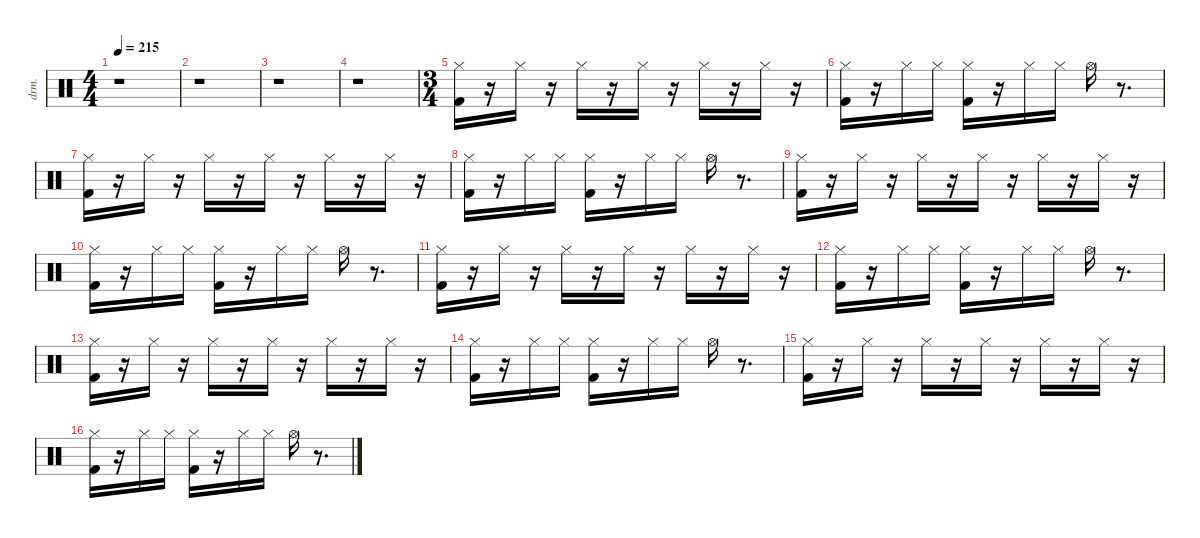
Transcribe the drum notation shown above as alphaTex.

\defaultSystemsLayout 4
\hideDynamics
\bracketExtendMode nobrackets
\otherSystemsTrackNameOrientation horizontal
\track ("drums(暫定)" "drm.") {instrument percussion}
\staff {score}
\articulation defaults
\ts (4 4)
\tempo 215
\clef neutral
\ks aminor
r.1{dy fff beam Down} |
r.1{beam Down} |
r.1{beam Down} |
r.1{beam Down} |
\ts (3 4)
("Kick (hit) 2" "Hi-Hat (closed)"{acc #}).16{beam Down} r.16{beam Down} "Hi-Hat (closed)"{acc #}.16{dy pp beam Down} r.16{beam Down} "Hi-Hat (closed)"{acc #}.16{beam Down} r.16{beam Down} "Hi-Hat (closed)"{acc #}.16{dy fff beam Down} r.16{beam Down} "Hi-Hat (closed)"{acc #}.16{dy ppp beam Down} r.16{beam Down} "Hi-Hat (closed)"{acc #}.16{dy pp beam Down} r.16{beam Down} |
("Kick (hit) 2" "Hi-Hat (closed)"{acc #}).16{dy ff beam Down} r.16{beam Down} "Hi-Hat (closed)"{acc #}.16{dy mp beam Down} "Hi-Hat (closed)"{acc #}.16{dy pp beam Down} ("Kick (hit) 2" "Hi-Hat (closed)"{acc #}).16{dy ff beam Down} r.16{beam Down} "Hi-Hat (closed)"{acc #}.16{dy pp beam Down} "Hi-Hat (closed)"{acc #}.16{dy ppp beam Down} "Hi-Hat (open)"{acc #}.16{dy fff beam Down} r.8{d beam Down} |
("Kick (hit) 2" "Hi-Hat (closed)"{acc #}).16{dy ff beam Down} r.16{beam Down} "Hi-Hat (closed)"{acc #}.16{dy pp beam Down} r.16{beam Down} "Hi-Hat (closed)"{acc #}.16{beam Down} r.16{beam Down} "Hi-Hat (closed)"{acc #}.16{dy fff beam Down} r.16{beam Down} "Hi-Hat (closed)"{acc #}.16{dy ppp beam Down} r.16{beam Down} "Hi-Hat (closed)"{acc #}.16{dy pp beam Down} r.16{beam Down} |
("Kick (hit) 2" "Hi-Hat (closed)"{acc #}).16{dy ff beam Down} r.16{beam Down} "Hi-Hat (closed)"{acc #}.16{dy mp beam Down} "Hi-Hat (closed)"{acc #}.16{dy pp beam Down} ("Kick (hit) 2" "Hi-Hat (closed)"{acc #}).16{dy ff beam Down} r.16{beam Down} "Hi-Hat (closed)"{acc #}.16{dy pp beam Down} "Hi-Hat (closed)"{acc #}.16{dy ppp beam Down} "Hi-Hat (open)"{acc #}.16{dy fff beam Down} r.8{d beam Down} |
("Kick (hit) 2" "Hi-Hat (closed)"{acc #}).16{dy ff beam Down} r.16{beam Down} "Hi-Hat (closed)"{acc #}.16{dy pp beam Down} r.16{beam Down} "Hi-Hat (closed)"{acc #}.16{beam Down} r.16{beam Down} "Hi-Hat (closed)"{acc #}.16{dy fff beam Down} r.16{beam Down} "Hi-Hat (closed)"{acc #}.16{dy ppp beam Down} r.16{beam Down} "Hi-Hat (closed)"{acc #}.16{dy pp beam Down} r.16{beam Down} |
("Kick (hit) 2" "Hi-Hat (closed)"{acc #}).16{dy ff beam Down} r.16{beam Down} "Hi-Hat (closed)"{acc #}.16{dy mp beam Down} "Hi-Hat (closed)"{acc #}.16{dy pp beam Down} ("Kick (hit) 2" "Hi-Hat (closed)"{acc #}).16{dy ff beam Down} r.16{beam Down} "Hi-Hat (closed)"{acc #}.16{dy pp beam Down} "Hi-Hat (closed)"{acc #}.16{dy ppp beam Down} "Hi-Hat (open)"{acc #}.16{dy fff beam Down} r.8{d beam Down} |
("Kick (hit) 2" "Hi-Hat (closed)"{acc #}).16{dy ff beam Down} r.16{beam Down} "Hi-Hat (closed)"{acc #}.16{dy pp beam Down} r.16{beam Down} "Hi-Hat (closed)"{acc #}.16{beam Down} r.16{beam Down} "Hi-Hat (closed)"{acc #}.16{dy fff beam Down} r.16{beam Down} "Hi-Hat (closed)"{acc #}.16{dy ppp beam Down} r.16{beam Down} "Hi-Hat (closed)"{acc #}.16{dy pp beam Down} r.16{beam Down} |
("Kick (hit) 2" "Hi-Hat (closed)"{acc #}).16{dy ff beam Down} r.16{beam Down} "Hi-Hat (closed)"{acc #}.16{dy mp beam Down} "Hi-Hat (closed)"{acc #}.16{dy pp beam Down} ("Kick (hit) 2" "Hi-Hat (closed)"{acc #}).16{dy ff beam Down} r.16{beam Down} "Hi-Hat (closed)"{acc #}.16{dy pp beam Down} "Hi-Hat (closed)"{acc #}.16{dy ppp beam Down} "Hi-Hat (open)"{acc #}.16{dy fff beam Down} r.8{d beam Down} |
("Kick (hit) 2" "Hi-Hat (closed)"{acc #}).16{dy ff beam Down} r.16{beam Down} "Hi-Hat (closed)"{acc #}.16{dy pp beam Down} r.16{beam Down} "Hi-Hat (closed)"{acc #}.16{beam Down} r.16{beam Down} "Hi-Hat (closed)"{acc #}.16{dy fff beam Down} r.16{beam Down} "Hi-Hat (closed)"{acc #}.16{dy ppp beam Down} r.16{beam Down} "Hi-Hat (closed)"{acc #}.16{dy pp beam Down} r.16{beam Down} |
("Kick (hit) 2" "Hi-Hat (closed)"{acc #}).16{dy ff beam Down} r.16{beam Down} "Hi-Hat (closed)"{acc #}.16{dy mp beam Down} "Hi-Hat (closed)"{acc #}.16{dy pp beam Down} ("Kick (hit) 2" "Hi-Hat (closed)"{acc #}).16{dy ff beam Down} r.16{beam Down} "Hi-Hat (closed)"{acc #}.16{dy pp beam Down} "Hi-Hat (closed)"{acc #}.16{dy ppp beam Down} "Hi-Hat (open)"{acc #}.16{dy fff beam Down} r.8{d beam Down} |
("Kick (hit) 2" "Hi-Hat (closed)"{acc #}).16{dy ff beam Down} r.16{beam Down} "Hi-Hat (closed)"{acc #}.16{dy pp beam Down} r.16{beam Down} "Hi-Hat (closed)"{acc #}.16{beam Down} r.16{beam Down} "Hi-Hat (closed)"{acc #}.16{dy fff beam Down} r.16{beam Down} "Hi-Hat (closed)"{acc #}.16{dy ppp beam Down} r.16{beam Down} "Hi-Hat (closed)"{acc #}.16{dy pp beam Down} r.16{beam Down} |
("Kick (hit) 2" "Hi-Hat (closed)"{acc #}).16{dy ff beam Down} r.16{beam Down} "Hi-Hat (closed)"{acc #}.16{dy mp beam Down} "Hi-Hat (closed)"{acc #}.16{dy pp beam Down} ("Kick (hit) 2" "Hi-Hat (closed)"{acc #}).16{dy ff beam Down} r.16{beam Down} "Hi-Hat (closed)"{acc #}.16{dy pp beam Down} "Hi-Hat (closed)"{acc #}.16{dy ppp beam Down} "Hi-Hat (open)"{acc #}.16{dy fff beam Down} r.8{d beam Down}
